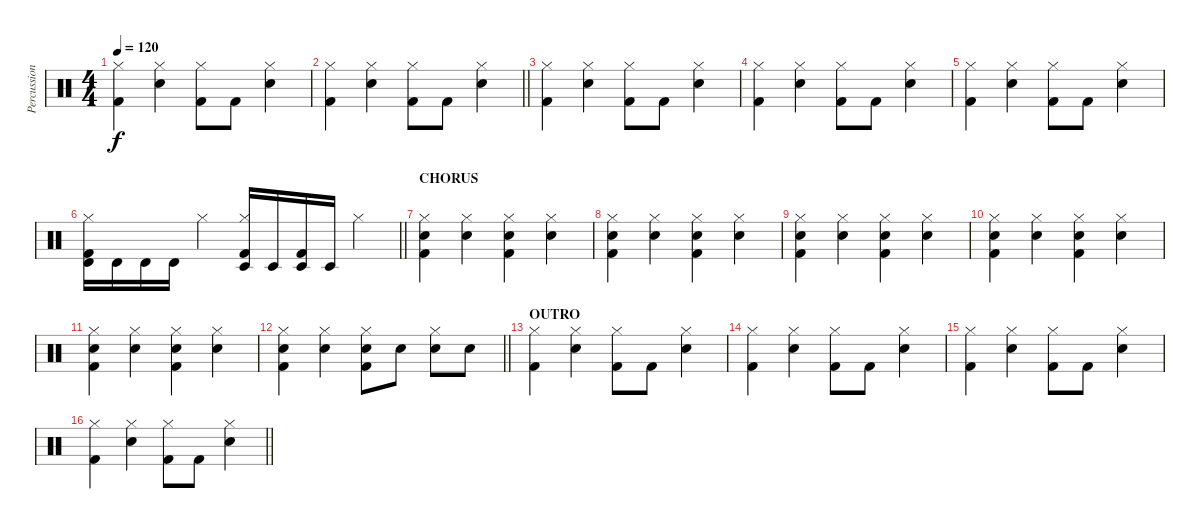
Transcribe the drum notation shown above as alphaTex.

\track ("Percussion" "Percussion") {instrument percussion}
\staff {score}
\articulation defaults
\ts (4 4)
\tempo 120
\clef neutral
\ks c
("Hi-Hat (closed)" "Kick (hit) 2").4{dy f} ("Hi-Hat (closed)" "Snare (hit) 2").4 ("Hi-Hat (closed)" "Kick (hit) 2").8 "Kick (hit) 2".8 ("Hi-Hat (closed)" "Snare (hit) 2").4 |
\barLineRight lightlight
("Hi-Hat (closed)" "Kick (hit) 2").4 ("Hi-Hat (closed)" "Snare (hit) 2").4 ("Hi-Hat (closed)" "Kick (hit) 2").8 "Kick (hit) 2".8 ("Hi-Hat (closed)" "Snare (hit) 2").4 |
("Hi-Hat (closed)" "Kick (hit) 2").4 ("Hi-Hat (closed)" "Snare (hit) 2").4 ("Hi-Hat (closed)" "Kick (hit) 2").8 "Kick (hit) 2".8 ("Hi-Hat (closed)" "Snare (hit) 2").4 |
("Hi-Hat (closed)" "Kick (hit) 2").4 ("Hi-Hat (closed)" "Snare (hit) 2").4 ("Hi-Hat (closed)" "Kick (hit) 2").8 "Kick (hit) 2".8 ("Hi-Hat (closed)" "Snare (hit) 2").4 |
("Hi-Hat (closed)" "Kick (hit) 2").4 ("Hi-Hat (closed)" "Snare (hit) 2").4 ("Hi-Hat (closed)" "Kick (hit) 2").8 "Kick (hit) 2".8 ("Hi-Hat (closed)" "Snare (hit) 2").4 |
\barLineRight lightlight
("Hi-Hat (closed)" "Kick (hit) 2" "Timbale high (hit)").16 "Timbale high (hit)".16 "Timbale high (hit)".16 "Timbale high (hit)".16 "Hi-Hat (closed)".4 ("Hi-Hat (closed)" "Kick (hit) 2" "Timbale low (hit)").16 "Timbale low (hit)".16 ("Kick (hit) 2" "Timbale low (hit)").16 "Timbale low (hit)".16 "Hi-Hat (closed)".4 |
\section ("" "CHORUS")
("Hi-Hat (closed)" "Kick (hit) 2" "Snare (hit) 2").4 ("Hi-Hat (closed)" "Snare (hit) 2").4 ("Hi-Hat (closed)" "Kick (hit) 2" "Snare (hit) 2").4 ("Hi-Hat (closed)" "Snare (hit) 2").4 |
("Hi-Hat (closed)" "Kick (hit) 2" "Snare (hit) 2").4 ("Hi-Hat (closed)" "Snare (hit) 2").4 ("Hi-Hat (closed)" "Kick (hit) 2" "Snare (hit) 2").4 ("Hi-Hat (closed)" "Snare (hit) 2").4 |
("Hi-Hat (closed)" "Kick (hit) 2" "Snare (hit) 2").4 ("Hi-Hat (closed)" "Snare (hit) 2").4 ("Hi-Hat (closed)" "Kick (hit) 2" "Snare (hit) 2").4 ("Hi-Hat (closed)" "Snare (hit) 2").4 |
("Hi-Hat (closed)" "Kick (hit) 2" "Snare (hit) 2").4 ("Hi-Hat (closed)" "Snare (hit) 2").4 ("Hi-Hat (closed)" "Kick (hit) 2" "Snare (hit) 2").4 ("Hi-Hat (closed)" "Snare (hit) 2").4 |
("Hi-Hat (closed)" "Kick (hit) 2" "Snare (hit) 2").4 ("Hi-Hat (closed)" "Snare (hit) 2").4 ("Hi-Hat (closed)" "Kick (hit) 2" "Snare (hit) 2").4 ("Hi-Hat (closed)" "Snare (hit) 2").4 |
\barLineRight lightlight
("Hi-Hat (closed)" "Kick (hit) 2" "Snare (hit) 2").4 ("Hi-Hat (closed)" "Snare (hit) 2").4 ("Hi-Hat (closed)" "Kick (hit) 2" "Snare (hit) 2").8 "Snare (hit) 2".8 ("Hi-Hat (closed)" "Snare (hit) 2").8 "Snare (hit) 2".8 |
\section ("" "OUTRO")
("Hi-Hat (closed)" "Kick (hit) 2").4 ("Hi-Hat (closed)" "Snare (hit) 2").4 ("Hi-Hat (closed)" "Kick (hit) 2").8 "Kick (hit) 2".8 ("Hi-Hat (closed)" "Snare (hit) 2").4 |
("Hi-Hat (closed)" "Kick (hit) 2").4 ("Hi-Hat (closed)" "Snare (hit) 2").4 ("Hi-Hat (closed)" "Kick (hit) 2").8 "Kick (hit) 2".8 ("Hi-Hat (closed)" "Snare (hit) 2").4 |
("Hi-Hat (closed)" "Kick (hit) 2").4 ("Hi-Hat (closed)" "Snare (hit) 2").4 ("Hi-Hat (closed)" "Kick (hit) 2").8 "Kick (hit) 2".8 ("Hi-Hat (closed)" "Snare (hit) 2").4 |
\barLineRight lightlight
("Hi-Hat (closed)" "Kick (hit) 2").4 ("Hi-Hat (closed)" "Snare (hit) 2").4 ("Hi-Hat (closed)" "Kick (hit) 2").8 "Kick (hit) 2".8 ("Hi-Hat (closed)" "Snare (hit) 2").4
